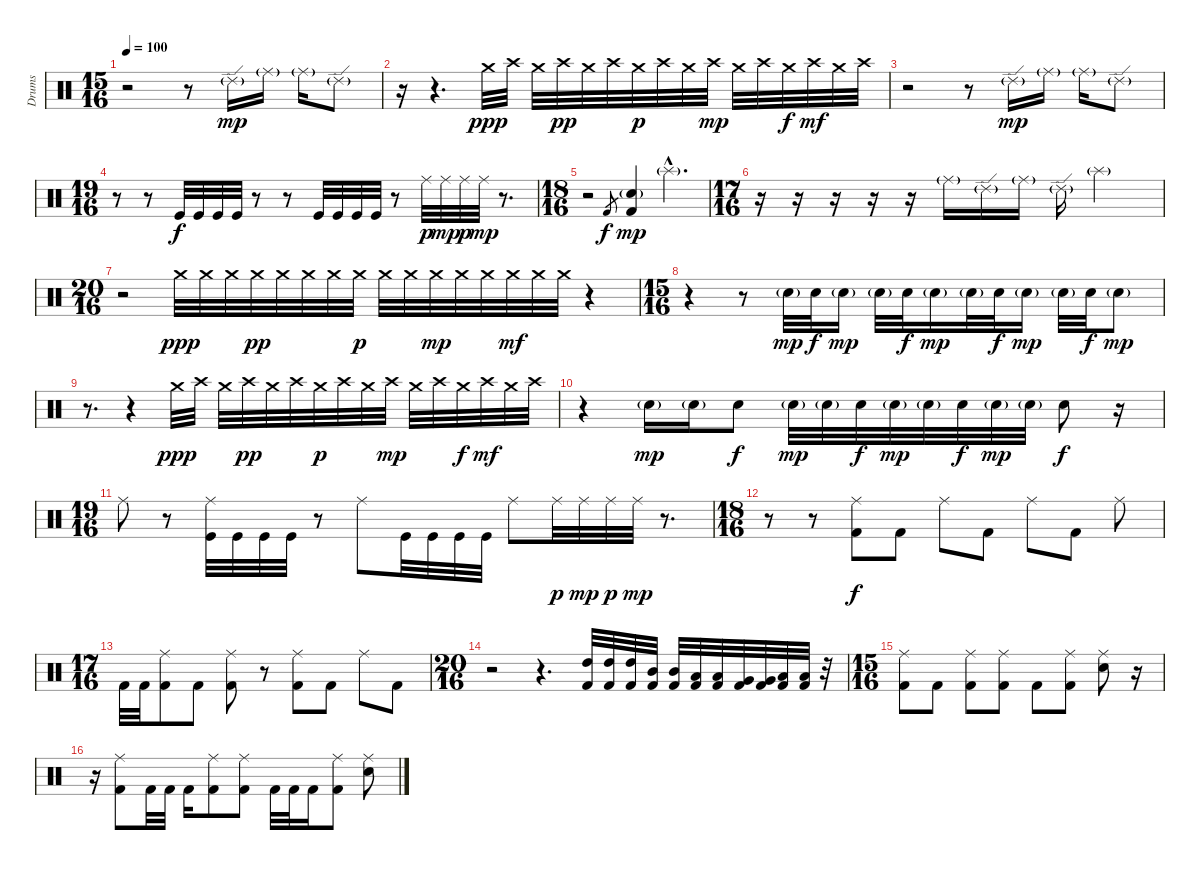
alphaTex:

\track ("Drums" "Drums") {instrument percussion}
\staff {score}
\articulation defaults
\ts (15 16)
\tempo 100
\clef neutral
\ks c
r.2{dy mp} r.8 "Ride (edge) 2"{g}.16 "Ride (middle)"{g}.16 "Ride (middle)"{g}.16 "Ride (edge) 2"{g}.8 |
r.16 r.4{d} "Crash medium (hit)".32{dy ppp} "Crash high (hit)".32 "Crash medium (hit)".32 "Crash high (hit)".32{dy pp} "Crash medium (hit)".32 "Crash high (hit)".32 "Crash medium (hit)".32{dy p} "Crash high (hit)".32 "Crash medium (hit)".32 "Crash high (hit)".32{dy mp} "Crash medium (hit)".32 "Crash high (hit)".32 "Crash medium (hit)".32{dy f} "Crash high (hit)".32{dy mf} "Crash medium (hit)".32 "Crash high (hit)".32 |
r.2 r.8 "Ride (edge) 2"{g}.16{dy mp} "Ride (middle)"{g}.16 "Ride (middle)"{g}.16 "Ride (edge) 2"{g}.8 |
\ts (19 16)
r.8 r.8 "Kick (hit)".32{dy f} "Kick (hit)".32 "Kick (hit)".32 "Kick (hit)".32 r.8 r.8 "Kick (hit)".32 "Kick (hit)".32 "Kick (hit)".32 "Kick (hit)".32 r.8 "Ride (middle)".32{dy p} "Ride (middle)".32{dy mp} "Ride (middle)".32{dy p} "Ride (middle)".32{dy mp} r.8{d} |
\ts (18 16)
r.2 "Kick (hit) 2".8{gr dy f} ("Electric Snare (hit)"{g} "Kick (hit) 2").4{dy mp} "Splash (hit)"{g hac}.4{d} |
\ts (17 16)
r.16 r.16 r.16 r.16 r.16 "Ride (middle)"{g}.16 "Ride (edge) 2"{g}.16 "Ride (middle)"{g}.16 "Ride (edge) 2"{g}.16 "Splash (hit)"{g}.2 |
\ts (20 16)
r.2 "Crash medium (hit)".32{dy ppp} "Crash medium (hit)".32 "Crash medium (hit)".32 "Crash medium (hit)".32{dy pp} "Crash medium (hit)".32 "Crash medium (hit)".32 "Crash medium (hit)".32 "Crash medium (hit)".32{dy p} "Crash medium (hit)".32 "Crash medium (hit)".32 "Crash medium (hit)".32{dy mp} "Crash medium (hit)".32 "Crash medium (hit)".32 "Crash medium (hit)".32{dy mf} "Crash medium (hit)".32 "Crash medium (hit)".32 r.4 |
\ts (15 16)
r.4 r.8 "Electric Snare (hit)"{g}.32{dy mp} "Electric Snare (hit)".32{dy f} "Electric Snare (hit)"{g}.16{dy mp} "Electric Snare (hit)"{g}.32 "Electric Snare (hit)".32{dy f} "Electric Snare (hit)"{g}.16{dy mp} "Electric Snare (hit)"{g}.32 "Electric Snare (hit)".32{dy f} "Electric Snare (hit)"{g}.16{dy mp} "Electric Snare (hit)"{g}.32 "Electric Snare (hit)".32{dy f} "Electric Snare (hit)"{g}.8{dy mp} |
r.8{d} r.4 "Crash medium (hit)".32{dy ppp} "Crash high (hit)".32 "Crash medium (hit)".32 "Crash high (hit)".32{dy pp} "Crash medium (hit)".32 "Crash high (hit)".32 "Crash medium (hit)".32{dy p} "Crash high (hit)".32 "Crash medium (hit)".32 "Crash high (hit)".32{dy mp} "Crash medium (hit)".32 "Crash high (hit)".32 "Crash medium (hit)".32{dy f} "Crash high (hit)".32{dy mf} "Crash medium (hit)".32 "Crash high (hit)".32 |
r.4 "Electric Snare (hit)"{g}.16{dy mp} "Electric Snare (hit)"{g}.16 "Electric Snare (hit)".8{dy f} "Electric Snare (hit)"{g}.32{dy mp} "Electric Snare (hit)"{g}.32 "Electric Snare (hit)".32{dy f} "Electric Snare (hit)"{g}.32{dy mp} "Electric Snare (hit)"{g}.32 "Electric Snare (hit)".32{dy f} "Electric Snare (hit)"{g}.32{dy mp} "Electric Snare (hit)"{g}.32 "Electric Snare (hit)".8{dy f} r.16 |
\ts (19 16)
"Ride (middle)".8 r.8 ("Ride (middle)" "Kick (hit)").32 "Kick (hit)".32 "Kick (hit)".32 "Kick (hit)".32 r.8 "Ride (middle)".8 "Kick (hit)".32 "Kick (hit)".32 "Kick (hit)".32 "Kick (hit)".32 "Ride (middle)".8 "Ride (middle)".32{dy p} "Ride (middle)".32{dy mp} "Ride (middle)".32{dy p} "Ride (middle)".32{dy mp} r.8{d} |
\ts (18 16)
r.8 r.8 ("Ride (middle)" "Kick (hit) 2").8{dy f} "Kick (hit) 2".8 "Ride (middle)".8 "Kick (hit) 2".8 "Ride (middle)".8 "Kick (hit) 2".8 "Ride (middle)".8 |
\ts (17 16)
"Kick (hit) 2".32 "Kick (hit) 2".32 ("Ride (middle)" "Kick (hit) 2").8 "Kick (hit) 2".8 ("Ride (middle)" "Kick (hit) 2").8 r.8 ("Ride (middle)" "Kick (hit) 2").8 "Kick (hit) 2".8 "Ride (middle)".8 "Kick (hit) 2".8 |
\ts (20 16)
r.2 r.4{d} ("High Tom (hit)" "Kick (hit) 2").32 ("High Tom (hit)" "Kick (hit) 2").32 ("High Tom (hit)" "Kick (hit) 2").32 ("Mid Tom (hit)" "Kick (hit) 2").32 ("Mid Tom (hit)" "Kick (hit) 2").32 ("Low Tom (hit)" "Kick (hit) 2").32 ("Low Tom (hit)" "Kick (hit) 2").32 ("Very Low Tom (hit)" "Kick (hit) 2").32 ("Very Low Tom (hit)" "Kick (hit) 2").32 ("Low Floor Tom (hit)" "Kick (hit) 2").32 ("Low Floor Tom (hit)" "Kick (hit) 2").32 r.32 |
\ts (15 16)
("Ride (middle)" "Kick (hit) 2").8 "Kick (hit) 2".8 ("Ride (middle)" "Kick (hit) 2").8 ("Ride (middle)" "Kick (hit) 2").8 "Kick (hit) 2".8 ("Ride (middle)" "Kick (hit) 2").8 ("Ride (middle)" "Snare (hit) 2").8 r.16 |
r.16 ("Ride (middle)" "Kick (hit) 2").8 "Kick (hit) 2".32 "Kick (hit) 2".32 "Kick (hit) 2".16 ("Ride (middle)" "Kick (hit) 2").8 ("Ride (middle)" "Kick (hit) 2").8 "Kick (hit) 2".32 "Kick (hit) 2".32 "Kick (hit) 2".16 ("Ride (middle)" "Kick (hit) 2").8 ("Ride (middle)" "Snare (hit) 2").8
